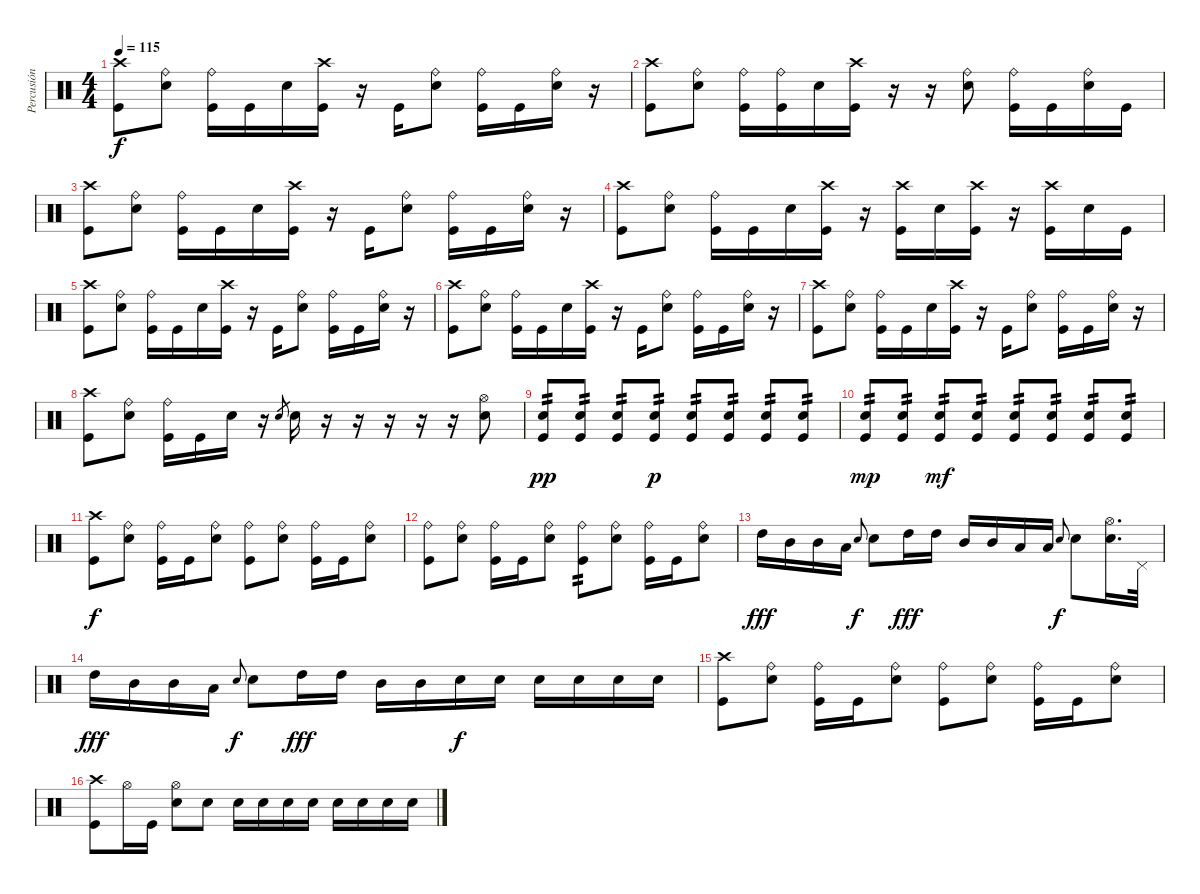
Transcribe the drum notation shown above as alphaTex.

\track ("Percusión" "Percusión") {instrument percussion}
\staff {score}
\articulation defaults
\ts (4 4)
\tempo 115
\clef neutral
\ks c
("Crash high (hit)" "Kick (hit)").8{dy f} ("Electric Snare (hit)" "Ride (bell)").8 ("Ride (bell)" "Kick (hit)").16 "Kick (hit)".16 "Electric Snare (hit)".16 ("Crash high (hit)" "Kick (hit)").16 r.16 "Kick (hit)".16 ("Electric Snare (hit)" "Ride (bell)").8 ("Ride (bell)" "Kick (hit)").16 "Kick (hit)".16 ("Electric Snare (hit)" "Ride (bell)").16 r.16 |
("Crash high (hit)" "Kick (hit)").8 ("Electric Snare (hit)" "Ride (bell)").8 ("Ride (bell)" "Kick (hit)").16 ("Ride (bell)" "Kick (hit)").16 "Electric Snare (hit)".16 ("Crash high (hit)" "Kick (hit)").16 r.16 r.16 ("Electric Snare (hit)" "Ride (bell)").8 ("Ride (bell)" "Kick (hit)").16 "Kick (hit)".16 ("Electric Snare (hit)" "Ride (bell)").16 "Kick (hit)".16 |
("Crash high (hit)" "Kick (hit)").8 ("Electric Snare (hit)" "Ride (bell)").8 ("Ride (bell)" "Kick (hit)").16 "Kick (hit)".16 "Electric Snare (hit)".16 ("Crash high (hit)" "Kick (hit)").16 r.16 "Kick (hit)".16 ("Electric Snare (hit)" "Ride (bell)").8 ("Ride (bell)" "Kick (hit)").16 "Kick (hit)".16 ("Electric Snare (hit)" "Ride (bell)").16 r.16 |
("Crash high (hit)" "Kick (hit)").8 ("Electric Snare (hit)" "Ride (bell)").8 ("Ride (bell)" "Kick (hit)").16 "Kick (hit)".16 "Electric Snare (hit)".16 ("Crash high (hit)" "Kick (hit)").16 r.16 ("Crash high (hit)" "Kick (hit)").16 "Electric Snare (hit)".16 ("Crash high (hit)" "Kick (hit)").16 r.16 ("Crash high (hit)" "Kick (hit)").16 "Electric Snare (hit)".16 "Kick (hit)".16 |
("Crash high (hit)" "Kick (hit)").8 ("Electric Snare (hit)" "Ride (bell)").8 ("Ride (bell)" "Kick (hit)").16 "Kick (hit)".16 "Electric Snare (hit)".16 ("Crash high (hit)" "Kick (hit)").16 r.16 "Kick (hit)".16 ("Electric Snare (hit)" "Ride (bell)").8 ("Ride (bell)" "Kick (hit)").16 "Kick (hit)".16 ("Electric Snare (hit)" "Ride (bell)").16 r.16 |
("Crash high (hit)" "Kick (hit)").8 ("Electric Snare (hit)" "Ride (bell)").8 ("Ride (bell)" "Kick (hit)").16 "Kick (hit)".16 "Electric Snare (hit)".16 ("Crash high (hit)" "Kick (hit)").16 r.16 "Kick (hit)".16 ("Electric Snare (hit)" "Ride (bell)").8 ("Ride (bell)" "Kick (hit)").16 "Kick (hit)".16 ("Electric Snare (hit)" "Ride (bell)").16 r.16 |
("Crash high (hit)" "Kick (hit)").8 ("Electric Snare (hit)" "Ride (bell)").8 ("Ride (bell)" "Kick (hit)").16 "Kick (hit)".16 "Electric Snare (hit)".16 ("Crash high (hit)" "Kick (hit)").16 r.16 "Kick (hit)".16 ("Electric Snare (hit)" "Ride (bell)").8 ("Ride (bell)" "Kick (hit)").16 "Kick (hit)".16 ("Electric Snare (hit)" "Ride (bell)").16 r.16 |
("Crash high (hit)" "Kick (hit)").8 ("Electric Snare (hit)" "Ride (bell)").8 ("Ride (bell)" "Kick (hit)").16 "Kick (hit)".16 "Electric Snare (hit)".16 r.16 "Electric Snare (hit)".8{gr} "Electric Snare (hit)".16 r.16 r.16 r.16 r.16 r.16 ("Electric Snare (hit)" "Hi-Hat (open)").8 |
("Electric Snare (hit)" "Kick (hit)").8{tp 2 dy pp} ("Electric Snare (hit)" "Kick (hit)").8{tp 2} ("Electric Snare (hit)" "Kick (hit)").8{tp 2} ("Electric Snare (hit)" "Kick (hit)").8{tp 2 dy p} ("Electric Snare (hit)" "Kick (hit)").8{tp 2} ("Electric Snare (hit)" "Kick (hit)").8{tp 2} ("Electric Snare (hit)" "Kick (hit)").8{tp 2} ("Electric Snare (hit)" "Kick (hit)").8{tp 2} |
("Electric Snare (hit)" "Kick (hit)").8{tp 2 dy mp} ("Electric Snare (hit)" "Kick (hit)").8{tp 2} ("Electric Snare (hit)" "Kick (hit)").8{tp 2 dy mf} ("Electric Snare (hit)" "Kick (hit)").8{tp 2} ("Electric Snare (hit)" "Kick (hit)").8{tp 2} ("Electric Snare (hit)" "Kick (hit)").8{tp 2} ("Electric Snare (hit)" "Kick (hit)").8{tp 2} ("Electric Snare (hit)" "Kick (hit)").8{tp 2} |
("Crash high (hit)" "Kick (hit)").8{dy f} ("Electric Snare (hit)" "Ride (bell)").8 ("Ride (bell)" "Kick (hit)").16 "Kick (hit)".16 ("Electric Snare (hit)" "Ride (bell)").8 ("Ride (bell)" "Kick (hit)").8 ("Electric Snare (hit)" "Ride (bell)").8 ("Ride (bell)" "Kick (hit)").16 "Kick (hit)".16 ("Electric Snare (hit)" "Ride (bell)").8 |
("Ride (bell)" "Kick (hit)").8 ("Electric Snare (hit)" "Ride (bell)").8 ("Ride (bell)" "Kick (hit)").16 "Kick (hit)".16 ("Electric Snare (hit)" "Ride (bell)").8 ("Ride (bell)" "Kick (hit)").8{tp 2} ("Electric Snare (hit)" "Ride (bell)").8 ("Ride (bell)" "Kick (hit)").16 "Kick (hit)".16 ("Electric Snare (hit)" "Ride (bell)").8 |
"High Tom (hit)".16{dy fff} "Mid Tom (hit)".16 "Mid Tom (hit)".16 "Low Tom (hit)".16 "Electric Snare (hit)".8{gr onbeat dy f} "Electric Snare (hit)".8 "High Tom (hit)".16{dy fff} "High Tom (hit)".16 "Mid Tom (hit)".16 "Mid Tom (hit)".16 "Low Tom (hit)".16 "Low Tom (hit)".16 "Electric Snare (hit)".8{gr onbeat dy f} "Electric Snare (hit)".8 ("Electric Snare (hit)" "Hi-Hat (open)").16{d} "Pedal Hi-Hat (hit)".32 |
"High Tom (hit)".16{dy fff} "Mid Tom (hit)".16 "Mid Tom (hit)".16 "Low Tom (hit)".16 "Electric Snare (hit)".8{gr onbeat dy f} "Electric Snare (hit)".8 "High Tom (hit)".16{dy fff} "High Tom (hit)".16 "Mid Tom (hit)".16 "Mid Tom (hit)".16 "Electric Snare (hit)".16{dy f} "Electric Snare (hit)".16 "Electric Snare (hit)".16 "Electric Snare (hit)".16 "Electric Snare (hit)".16 "Electric Snare (hit)".16 |
("Crash high (hit)" "Kick (hit)").8 ("Electric Snare (hit)" "Ride (bell)").8 ("Ride (bell)" "Kick (hit)").16 "Kick (hit)".16 ("Electric Snare (hit)" "Ride (bell)").8 ("Ride (bell)" "Kick (hit)").8 ("Electric Snare (hit)" "Ride (bell)").8 ("Ride (bell)" "Kick (hit)").16 "Kick (hit)".16 ("Electric Snare (hit)" "Ride (bell)").8 |
("Crash high (hit)" "Kick (hit)").8 "Hi-Hat (open)".16 "Kick (hit)".16 ("Electric Snare (hit)" "Hi-Hat (open)").8 "Electric Snare (hit)".8 "Electric Snare (hit)".16 "Electric Snare (hit)".16 "Electric Snare (hit)".16 "Electric Snare (hit)".16 "Electric Snare (hit)".16 "Electric Snare (hit)".16 "Electric Snare (hit)".16 "Electric Snare (hit)".16
